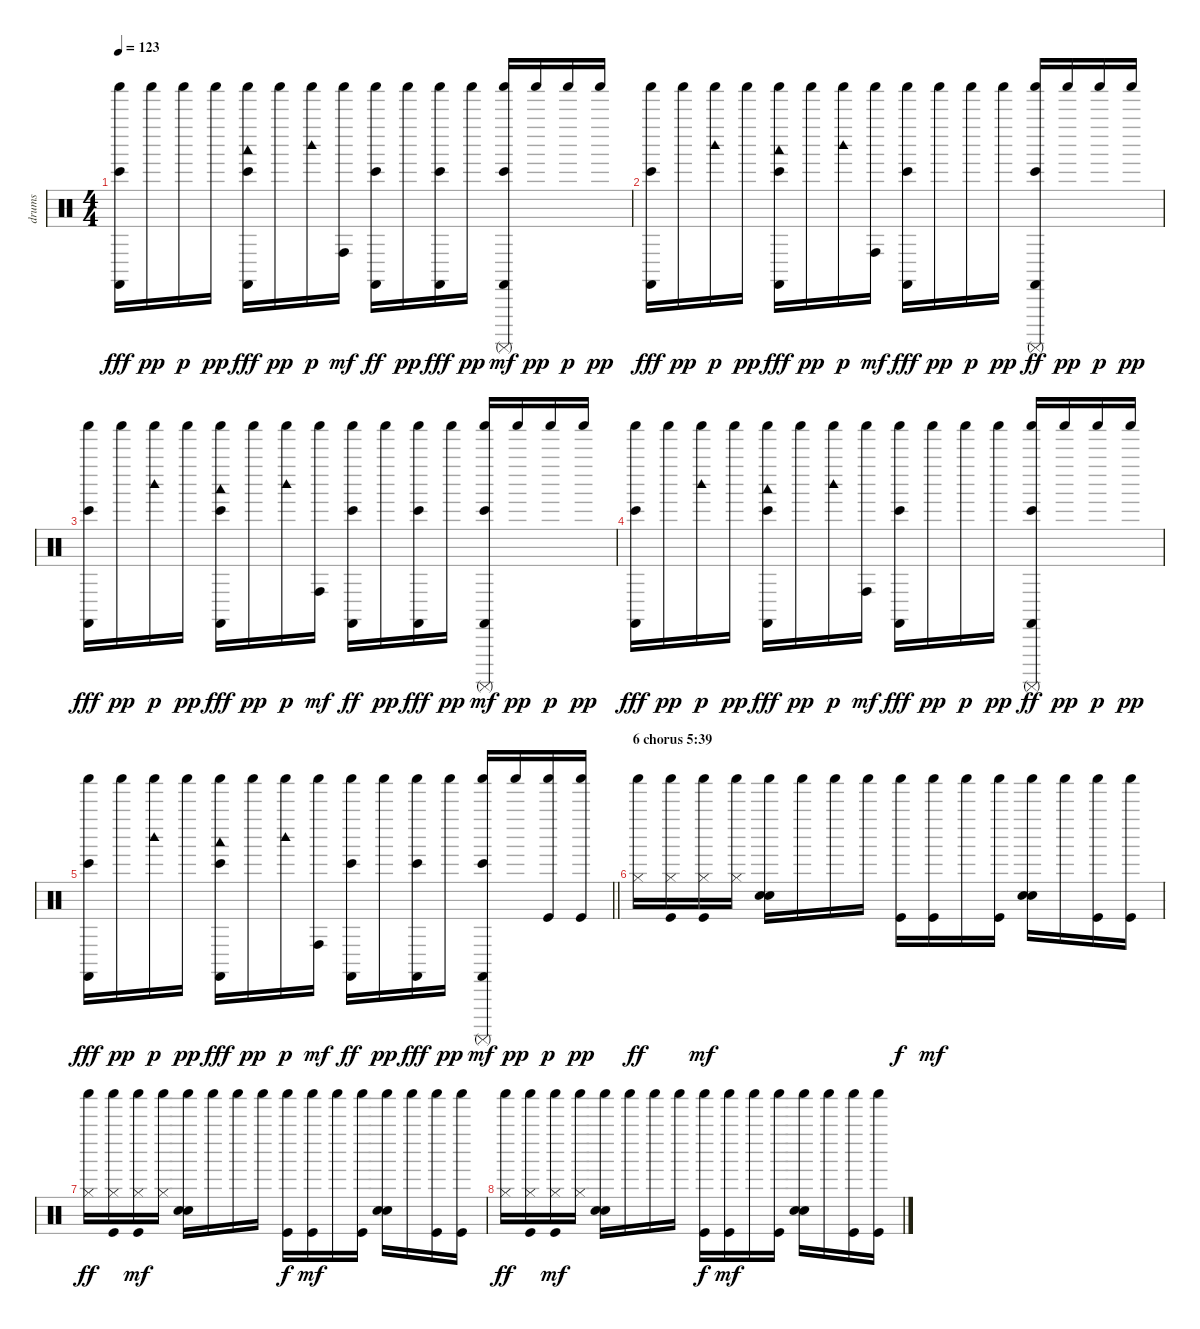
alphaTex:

\track ("drums" "drums") {instrument percussion}
\staff {score}
\articulation defaults
\ts (4 4)
\tempo 123
\clef neutral
\ks c
("Bongo High (hit)" "Castanets (hit)" "Shaker (hit)").16{dy fff} "Shaker (hit)".16{dy pp} "Shaker (hit)".16{dy p} "Shaker (hit)".16{dy pp} ("Bongo High (hit)" "Castanets (hit)" "Shaker (hit)" "Woodblock low (hit)").16{dy fff} "Shaker (hit)".16{dy pp} ("Shaker (hit)" "Woodblock high (hit)").16{dy p} ("Shaker (hit)" "Conga high (hit)").16{dy mf} ("Bongo High (hit)" "Castanets (hit)" "Shaker (hit)").16{dy ff} "Shaker (hit)".16{dy pp} ("Bongo High (hit)" "Castanets (hit)" "Shaker (hit)").16{dy fff} "Shaker (hit)".16{dy pp} ("Bongo High (hit)" "Castanets (hit)" "Shaker (hit)" "Surdo (mute)").16{dy mf} "Shaker (hit)".16{dy pp} "Shaker (hit)".16{dy p} "Shaker (hit)".16{dy pp} |
("Bongo High (hit)" "Castanets (hit)" "Shaker (hit)").16{dy fff} "Shaker (hit)".16{dy pp} ("Shaker (hit)" "Woodblock high (hit)").16{dy p} "Shaker (hit)".16{dy pp} ("Bongo High (hit)" "Castanets (hit)" "Shaker (hit)" "Woodblock low (hit)").16{dy fff} "Shaker (hit)".16{dy pp} ("Shaker (hit)" "Woodblock high (hit)").16{dy p} ("Shaker (hit)" "Conga high (hit)").16{dy mf} ("Bongo High (hit)" "Castanets (hit)" "Shaker (hit)").16{dy fff} "Shaker (hit)".16{dy pp} "Shaker (hit)".16{dy p} "Shaker (hit)".16{dy pp} ("Bongo High (hit)" "Castanets (hit)" "Shaker (hit)" "Surdo (mute)").16{dy ff} "Shaker (hit)".16{dy pp} "Shaker (hit)".16{dy p} "Shaker (hit)".16{dy pp} |
("Bongo High (hit)" "Castanets (hit)" "Shaker (hit)").16{dy fff} "Shaker (hit)".16{dy pp} ("Shaker (hit)" "Woodblock high (hit)").16{dy p} "Shaker (hit)".16{dy pp} ("Bongo High (hit)" "Castanets (hit)" "Shaker (hit)" "Woodblock low (hit)").16{dy fff} "Shaker (hit)".16{dy pp} ("Shaker (hit)" "Woodblock high (hit)").16{dy p} ("Shaker (hit)" "Conga high (hit)").16{dy mf} ("Bongo High (hit)" "Castanets (hit)" "Shaker (hit)").16{dy ff} "Shaker (hit)".16{dy pp} ("Bongo High (hit)" "Castanets (hit)" "Shaker (hit)").16{dy fff} "Shaker (hit)".16{dy pp} ("Bongo High (hit)" "Castanets (hit)" "Shaker (hit)" "Surdo (mute)").16{dy mf} "Shaker (hit)".16{dy pp} "Shaker (hit)".16{dy p} "Shaker (hit)".16{dy pp} |
("Bongo High (hit)" "Castanets (hit)" "Shaker (hit)").16{dy fff} "Shaker (hit)".16{dy pp} ("Shaker (hit)" "Woodblock high (hit)").16{dy p} "Shaker (hit)".16{dy pp} ("Bongo High (hit)" "Castanets (hit)" "Shaker (hit)" "Woodblock low (hit)").16{dy fff} "Shaker (hit)".16{dy pp} ("Shaker (hit)" "Woodblock high (hit)").16{dy p} ("Shaker (hit)" "Conga high (hit)").16{dy mf} ("Bongo High (hit)" "Castanets (hit)" "Shaker (hit)").16{dy fff} "Shaker (hit)".16{dy pp} "Shaker (hit)".16{dy p} "Shaker (hit)".16{dy pp} ("Bongo High (hit)" "Castanets (hit)" "Shaker (hit)" "Surdo (mute)").16{dy ff} "Shaker (hit)".16{dy pp} "Shaker (hit)".16{dy p} "Shaker (hit)".16{dy pp} |
\barLineRight lightlight
("Bongo High (hit)" "Castanets (hit)" "Shaker (hit)").16{dy fff} "Shaker (hit)".16{dy pp} ("Shaker (hit)" "Woodblock high (hit)").16{dy p} "Shaker (hit)".16{dy pp} ("Bongo High (hit)" "Castanets (hit)" "Shaker (hit)" "Woodblock low (hit)").16{dy fff} "Shaker (hit)".16{dy pp} ("Shaker (hit)" "Woodblock high (hit)").16{dy p} ("Shaker (hit)" "Conga high (hit)").16{dy mf} ("Bongo High (hit)" "Castanets (hit)" "Shaker (hit)").16{dy ff} "Shaker (hit)".16{dy pp} ("Bongo High (hit)" "Castanets (hit)" "Shaker (hit)").16{dy fff} "Shaker (hit)".16{dy pp} ("Bongo High (hit)" "Castanets (hit)" "Shaker (hit)" "Surdo (mute)").16{dy mf} "Shaker (hit)".16{dy pp} ("Shaker (hit)" "Kick (hit)").16{dy p} ("Shaker (hit)" "Kick (hit)").16{dy pp} |
\section ("" "6 chorus 5:39")
("Shaker (hit)" "Hi-Hat (closed)").16{dy ff} ("Shaker (hit)" "Hi-Hat (closed)" "Kick (hit)").16 ("Shaker (hit)" "Hi-Hat (closed)" "Kick (hit)").16{dy mf} ("Shaker (hit)" "Hi-Hat (closed)").16 ("Shaker (hit)" "Electric Snare (hit)" "Hand Clap (hit)").16 "Shaker (hit)".16 "Shaker (hit)".16 "Shaker (hit)".16 ("Shaker (hit)" "Kick (hit)").16{dy f} ("Shaker (hit)" "Kick (hit)").16{dy mf} "Shaker (hit)".16 ("Shaker (hit)" "Kick (hit)").16 ("Shaker (hit)" "Electric Snare (hit)" "Hand Clap (hit)").16 "Shaker (hit)".16 ("Shaker (hit)" "Kick (hit)").16 ("Shaker (hit)" "Kick (hit)").16 |
("Shaker (hit)" "Hi-Hat (closed)").16{dy ff} ("Shaker (hit)" "Hi-Hat (closed)" "Kick (hit)").16 ("Shaker (hit)" "Hi-Hat (closed)" "Kick (hit)").16{dy mf} ("Shaker (hit)" "Hi-Hat (closed)").16 ("Shaker (hit)" "Electric Snare (hit)" "Hand Clap (hit)").16 "Shaker (hit)".16 "Shaker (hit)".16 "Shaker (hit)".16 ("Shaker (hit)" "Kick (hit)").16{dy f} ("Shaker (hit)" "Kick (hit)").16{dy mf} "Shaker (hit)".16 ("Shaker (hit)" "Kick (hit)").16 ("Shaker (hit)" "Electric Snare (hit)" "Hand Clap (hit)").16 "Shaker (hit)".16 ("Shaker (hit)" "Kick (hit)").16 ("Shaker (hit)" "Kick (hit)").16 |
("Shaker (hit)" "Hi-Hat (closed)").16{dy ff} ("Shaker (hit)" "Hi-Hat (closed)" "Kick (hit)").16 ("Shaker (hit)" "Hi-Hat (closed)" "Kick (hit)").16{dy mf} ("Shaker (hit)" "Hi-Hat (closed)").16 ("Shaker (hit)" "Electric Snare (hit)" "Hand Clap (hit)").16 "Shaker (hit)".16 "Shaker (hit)".16 "Shaker (hit)".16 ("Shaker (hit)" "Kick (hit)").16{dy f} ("Shaker (hit)" "Kick (hit)").16{dy mf} "Shaker (hit)".16 ("Shaker (hit)" "Kick (hit)").16 ("Shaker (hit)" "Electric Snare (hit)" "Hand Clap (hit)").16 "Shaker (hit)".16 ("Shaker (hit)" "Kick (hit)").16 ("Shaker (hit)" "Kick (hit)").16
